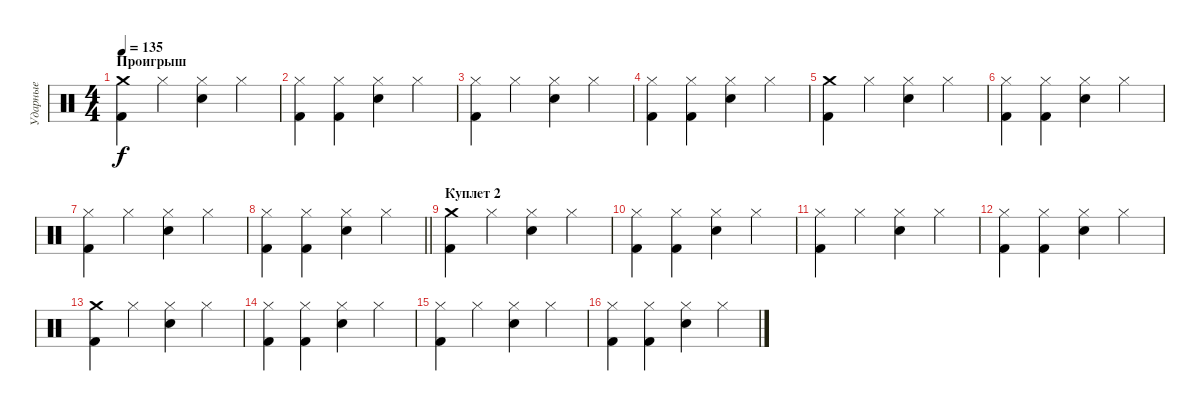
\track ("Ударные" "Ударные") {instrument percussion}
\staff {score}
\articulation defaults
\ts (4 4)
\section ("" "Проигрыш")
\tempo 135
\clef neutral
\ks c
("Crash medium (hit)" "Kick (hit) 2").4{dy f} "Hi-Hat (closed)".4 ("Hi-Hat (closed)" "Electric Snare (hit)").4 "Hi-Hat (closed)".4 |
("Hi-Hat (closed)" "Kick (hit) 2").4 ("Hi-Hat (closed)" "Kick (hit) 2").4 ("Hi-Hat (closed)" "Electric Snare (hit)").4 "Hi-Hat (closed)".4 |
("Hi-Hat (closed)" "Kick (hit) 2").4 "Hi-Hat (closed)".4 ("Hi-Hat (closed)" "Electric Snare (hit)").4 "Hi-Hat (closed)".4 |
("Hi-Hat (closed)" "Kick (hit) 2").4 ("Hi-Hat (closed)" "Kick (hit) 2").4 ("Hi-Hat (closed)" "Electric Snare (hit)").4 "Hi-Hat (closed)".4 |
("Crash medium (hit)" "Kick (hit) 2").4 "Hi-Hat (closed)".4 ("Hi-Hat (closed)" "Electric Snare (hit)").4 "Hi-Hat (closed)".4 |
("Hi-Hat (closed)" "Kick (hit) 2").4 ("Hi-Hat (closed)" "Kick (hit) 2").4 ("Hi-Hat (closed)" "Electric Snare (hit)").4 "Hi-Hat (closed)".4 |
("Hi-Hat (closed)" "Kick (hit) 2").4 "Hi-Hat (closed)".4 ("Hi-Hat (closed)" "Electric Snare (hit)").4 "Hi-Hat (closed)".4 |
\barLineRight lightlight
("Hi-Hat (closed)" "Kick (hit) 2").4 ("Hi-Hat (closed)" "Kick (hit) 2").4 ("Hi-Hat (closed)" "Electric Snare (hit)").4 "Hi-Hat (closed)".4 |
\section ("" "Куплет 2")
("Crash medium (hit)" "Kick (hit) 2").4 "Hi-Hat (closed)".4 ("Hi-Hat (closed)" "Electric Snare (hit)").4 "Hi-Hat (closed)".4 |
("Hi-Hat (closed)" "Kick (hit) 2").4 ("Hi-Hat (closed)" "Kick (hit) 2").4 ("Hi-Hat (closed)" "Electric Snare (hit)").4 "Hi-Hat (closed)".4 |
("Hi-Hat (closed)" "Kick (hit) 2").4 "Hi-Hat (closed)".4 ("Hi-Hat (closed)" "Electric Snare (hit)").4 "Hi-Hat (closed)".4 |
("Hi-Hat (closed)" "Kick (hit) 2").4 ("Hi-Hat (closed)" "Kick (hit) 2").4 ("Hi-Hat (closed)" "Electric Snare (hit)").4 "Hi-Hat (closed)".4 |
("Crash medium (hit)" "Kick (hit) 2").4 "Hi-Hat (closed)".4 ("Hi-Hat (closed)" "Electric Snare (hit)").4 "Hi-Hat (closed)".4 |
("Hi-Hat (closed)" "Kick (hit) 2").4 ("Hi-Hat (closed)" "Kick (hit) 2").4 ("Hi-Hat (closed)" "Electric Snare (hit)").4 "Hi-Hat (closed)".4 |
("Hi-Hat (closed)" "Kick (hit) 2").4 "Hi-Hat (closed)".4 ("Hi-Hat (closed)" "Electric Snare (hit)").4 "Hi-Hat (closed)".4 |
("Hi-Hat (closed)" "Kick (hit) 2").4 ("Hi-Hat (closed)" "Kick (hit) 2").4 ("Hi-Hat (closed)" "Electric Snare (hit)").4 "Hi-Hat (closed)".4
